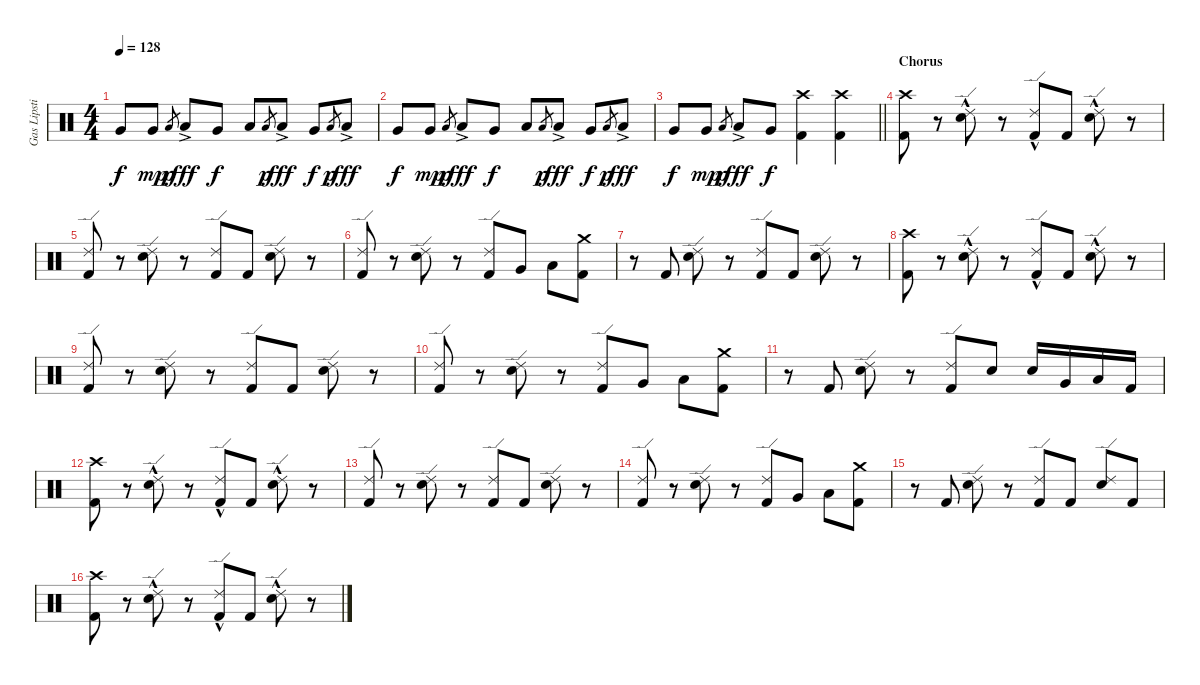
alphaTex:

\track ("Gas Lipstick (Drums)" "Gas Lipsti") {instrument percussion}
\staff {score}
\articulation defaults
\ts (4 4)
\tempo 128
\clef neutral
\ks c "Very Low Tom (hit)".8{dy f} "Very Low Tom (hit)".8{dy mp} "Low Tom (hit)".8{gr dy p} "Low Tom (hit)"{ac}.8{dy fff} "Very Low Tom (hit)".8{dy f} "Low Floor Tom (hit)".8 "Low Tom (hit)".8{gr dy p} "Low Tom (hit)"{ac}.8{dy fff} "Very Low Tom (hit)".8{dy f} "Low Tom (hit)".8{gr dy p} "Low Tom (hit)"{ac}.8{dy fff}
|
"Very Low Tom (hit)".8{dy f} "Very Low Tom (hit)".8{dy mp} "Low Tom (hit)".8{gr dy p} "Low Tom (hit)"{ac}.8{dy fff} "Very Low Tom (hit)".8{dy f} "Low Floor Tom (hit)".8 "Low Tom (hit)".8{gr dy p} "Low Tom (hit)"{ac}.8{dy fff} "Very Low Tom (hit)".8{dy f} "Low Tom (hit)".8{gr dy p} "Low Tom (hit)"{ac}.8{dy fff} |
\barLineRight lightlight "Very Low Tom (hit)".8{dy f} "Very Low Tom (hit)".8{dy mp} "Low Tom (hit)".8{gr dy p} "Low Tom (hit)"{ac}.8{dy fff} "Very Low Tom (hit)".8{dy f}
("Crash high (hit)" "Kick (hit) 2").4 ("Crash high (hit)" "Kick (hit) 2").4 |
\section ("" "Chorus")
("Crash high (hit)" "Kick (hit) 2").8 r.8 ("Ride (edge) 2"{hac} "Snare (hit) 2").8 r.8 ("Ride (edge) 2"{hac} "Kick (hit) 2").8 "Kick (hit) 2".8 ("Ride (edge) 2"{hac} "Snare (hit) 2").8 r.8 |
("Ride (edge) 2" "Kick (hit) 2").8 r.8 ("Ride (edge) 2" "Snare (hit) 2").8 r.8 ("Ride (edge) 2" "Kick (hit) 2").8 "Kick (hit) 2".8 ("Ride (edge) 2" "Snare (hit) 2").8 r.8 |
("Ride (edge) 2" "Kick (hit) 2").8 r.8 ("Ride (edge) 2" "Snare (hit) 2").8 r.8 ("Ride (edge) 2" "Kick (hit) 2").8 "Very Low Tom (hit)".8 "Low Floor Tom (hit)".8 ("Crash medium (hit)" "Kick (hit) 2").8 |
r.8 "Kick (hit) 2".8 ("Ride (edge) 2" "Snare (hit) 2").8 r.8 ("Ride (edge) 2" "Kick (hit) 2").8 "Kick (hit) 2".8 ("Ride (edge) 2" "Snare (hit) 2").8 r.8 |
("Crash high (hit)" "Kick (hit) 2").8 r.8 ("Ride (edge) 2"{hac} "Snare (hit) 2").8 r.8 ("Ride (edge) 2"{hac} "Kick (hit) 2").8 "Kick (hit) 2".8 ("Ride (edge) 2"{hac} "Snare (hit) 2").8 r.8 |
("Ride (edge) 2" "Kick (hit) 2").8 r.8 ("Ride (edge) 2" "Snare (hit) 2").8 r.8 ("Ride (edge) 2" "Kick (hit) 2").8 "Kick (hit) 2".8 ("Ride (edge) 2" "Snare (hit) 2").8 r.8 |
("Ride (edge) 2" "Kick (hit) 2").8 r.8 ("Ride (edge) 2" "Snare (hit) 2").8 r.8 ("Ride (edge) 2" "Kick (hit) 2").8 "Very Low Tom (hit)".8 "Low Floor Tom (hit)".8 ("Crash medium (hit)" "Kick (hit) 2").8 |
r.8 "Kick (hit) 2".8 ("Ride (edge) 2" "Snare (hit) 2").8 r.8 ("Ride (edge) 2" "Kick (hit) 2").8 "Snare (hit) 2".8 "Snare (hit) 2".16 "Very Low Tom (hit)".16 "Low Floor Tom (hit)".16 "Kick (hit) 2".16 |
("Crash high (hit)" "Kick (hit) 2").8 r.8 ("Ride (edge) 2"{hac} "Snare (hit) 2").8 r.8 ("Ride (edge) 2"{hac} "Kick (hit) 2").8 "Kick (hit) 2".8 ("Ride (edge) 2"{hac} "Snare (hit) 2").8 r.8 |
("Ride (edge) 2" "Kick (hit) 2").8 r.8 ("Ride (edge) 2" "Snare (hit) 2").8 r.8 ("Ride (edge) 2" "Kick (hit) 2").8 "Kick (hit) 2".8 ("Ride (edge) 2" "Snare (hit) 2").8 r.8 |
("Ride (edge) 2" "Kick (hit) 2").8 r.8 ("Ride (edge) 2" "Snare (hit) 2").8 r.8 ("Ride (edge) 2" "Kick (hit) 2").8 "Very Low Tom (hit)".8 "Low Floor Tom (hit)".8 ("Crash medium (hit)" "Kick (hit) 2").8 |
r.8 "Kick (hit) 2".8 ("Ride (edge) 2" "Snare (hit) 2").8 r.8 ("Ride (edge) 2" "Kick (hit) 2").8 "Kick (hit) 2".8 ("Ride (edge) 2" "Snare (hit) 2").8 "Kick (hit) 2".8 |
("Crash high (hit)" "Kick (hit) 2").8 r.8 ("Ride (edge) 2"{hac} "Snare (hit) 2").8 r.8 ("Ride (edge) 2"{hac} "Kick (hit) 2").8 "Kick (hit) 2".8 ("Ride (edge) 2"{hac} "Snare (hit) 2").8 r.8
